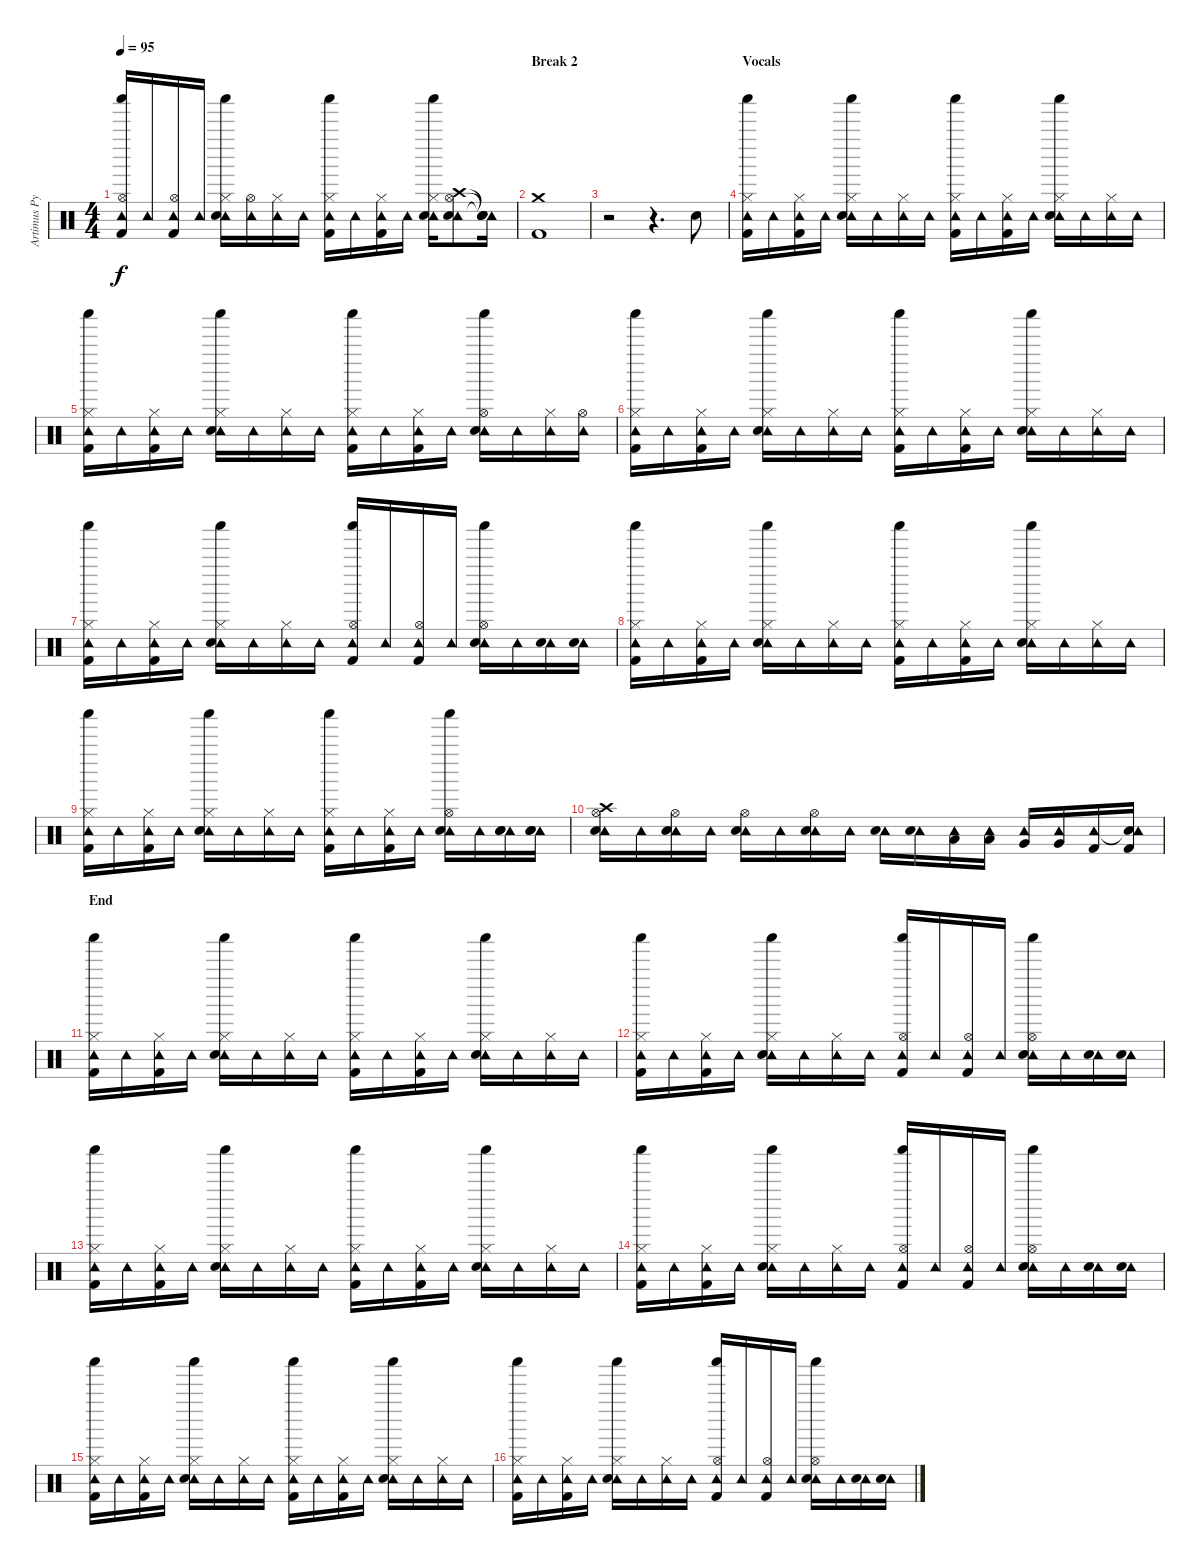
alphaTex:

\track ("Artimus Pyle" "Artimus Py") {instrument percussion}
\staff {score}
\articulation defaults
\ts (4 4)
\tempo 95
\clef neutral
\ks c
("Tambourine (hit)" "Shaker (hit)" "Hi-Hat (open)" "Kick (hit) 2").16{dy f} "Tambourine (hit)".16 ("Tambourine (hit)" "Hi-Hat (open)" "Kick (hit) 2").16 "Tambourine (hit)".16 ("Tambourine (hit)" "Shaker (hit)" "Hi-Hat (closed)" "Electric Snare (hit)").16 ("Tambourine (hit)" "Hi-Hat (open)").16 ("Tambourine (hit)" "Hi-Hat (closed)").16 "Tambourine (hit)".16 ("Tambourine (hit)" "Shaker (hit)" "Hi-Hat (closed)" "Kick (hit) 2").16 "Tambourine (hit)".16 ("Tambourine (hit)" "Hi-Hat (closed)" "Kick (hit) 2").16 "Tambourine (hit)".16 ("Tambourine (hit)" "Shaker (hit)" "Hi-Hat (closed)" "Electric Snare (hit)").16 ("Tambourine (hit)" "Crash high (hit)" "Hi-Hat (open)" "Electric Snare (hit)").8 ("Tambourine (hit)" "Snare (hit)"{t} "Snare (hit)"{t} "Snare (hit)"{t}).16 |
\section ("" "Break 2")
("Crash medium (hit)" "Kick (hit) 2").1 |
r.2 r.4{d} "Electric Snare (hit)".8 |
\section ("" "Vocals")
("Tambourine (hit)" "Shaker (hit)" "Hi-Hat (closed)" "Kick (hit) 2").16 "Tambourine (hit)".16 ("Tambourine (hit)" "Hi-Hat (closed)" "Kick (hit) 2").16 "Tambourine (hit)".16 ("Tambourine (hit)" "Shaker (hit)" "Hi-Hat (closed)" "Electric Snare (hit)").16 "Tambourine (hit)".16 ("Tambourine (hit)" "Hi-Hat (closed)").16 "Tambourine (hit)".16 ("Tambourine (hit)" "Shaker (hit)" "Hi-Hat (closed)" "Kick (hit) 2").16 "Tambourine (hit)".16 ("Tambourine (hit)" "Hi-Hat (closed)" "Kick (hit) 2").16 "Tambourine (hit)".16 ("Tambourine (hit)" "Shaker (hit)" "Hi-Hat (closed)" "Electric Snare (hit)").16 "Tambourine (hit)".16 ("Tambourine (hit)" "Hi-Hat (closed)").16 "Tambourine (hit)".16 |
("Tambourine (hit)" "Shaker (hit)" "Hi-Hat (closed)" "Kick (hit) 2").16 "Tambourine (hit)".16 ("Tambourine (hit)" "Hi-Hat (closed)" "Kick (hit) 2").16 "Tambourine (hit)".16 ("Tambourine (hit)" "Shaker (hit)" "Hi-Hat (closed)" "Electric Snare (hit)").16 "Tambourine (hit)".16 ("Tambourine (hit)" "Hi-Hat (closed)").16 "Tambourine (hit)".16 ("Tambourine (hit)" "Shaker (hit)" "Hi-Hat (closed)" "Kick (hit) 2").16 "Tambourine (hit)".16 ("Tambourine (hit)" "Hi-Hat (closed)" "Kick (hit) 2").16 "Tambourine (hit)".16 ("Tambourine (hit)" "Shaker (hit)" "Hi-Hat (open)" "Electric Snare (hit)").16 "Tambourine (hit)".16 ("Tambourine (hit)" "Hi-Hat (closed)").16 ("Tambourine (hit)" "Hi-Hat (open)").16 |
("Tambourine (hit)" "Shaker (hit)" "Hi-Hat (closed)" "Kick (hit) 2").16 "Tambourine (hit)".16 ("Tambourine (hit)" "Hi-Hat (closed)" "Kick (hit) 2").16 "Tambourine (hit)".16 ("Tambourine (hit)" "Shaker (hit)" "Hi-Hat (closed)" "Electric Snare (hit)").16 "Tambourine (hit)".16 ("Tambourine (hit)" "Hi-Hat (closed)").16 "Tambourine (hit)".16 ("Tambourine (hit)" "Shaker (hit)" "Hi-Hat (closed)" "Kick (hit) 2").16 "Tambourine (hit)".16 ("Tambourine (hit)" "Hi-Hat (closed)" "Kick (hit) 2").16 "Tambourine (hit)".16 ("Tambourine (hit)" "Shaker (hit)" "Hi-Hat (closed)" "Electric Snare (hit)").16 "Tambourine (hit)".16 ("Tambourine (hit)" "Hi-Hat (closed)").16 "Tambourine (hit)".16 |
("Tambourine (hit)" "Shaker (hit)" "Hi-Hat (closed)" "Kick (hit) 2").16 "Tambourine (hit)".16 ("Tambourine (hit)" "Hi-Hat (closed)" "Kick (hit) 2").16 "Tambourine (hit)".16 ("Tambourine (hit)" "Shaker (hit)" "Hi-Hat (closed)" "Electric Snare (hit)").16 "Tambourine (hit)".16 ("Tambourine (hit)" "Hi-Hat (closed)").16 "Tambourine (hit)".16 ("Tambourine (hit)" "Shaker (hit)" "Hi-Hat (open)" "Kick (hit) 2").16 "Tambourine (hit)".16 ("Tambourine (hit)" "Hi-Hat (open)" "Kick (hit) 2").16 "Tambourine (hit)".16 ("Tambourine (hit)" "Shaker (hit)" "Hi-Hat (open)" "Electric Snare (hit)").16 "Tambourine (hit)".16 ("Tambourine (hit)" "Electric Snare (hit)").16 ("Tambourine (hit)" "Electric Snare (hit)").16 |
("Tambourine (hit)" "Shaker (hit)" "Hi-Hat (closed)" "Kick (hit) 2").16 "Tambourine (hit)".16 ("Tambourine (hit)" "Hi-Hat (closed)" "Kick (hit) 2").16 "Tambourine (hit)".16 ("Tambourine (hit)" "Shaker (hit)" "Hi-Hat (closed)" "Electric Snare (hit)").16 "Tambourine (hit)".16 ("Tambourine (hit)" "Hi-Hat (closed)").16 "Tambourine (hit)".16 ("Tambourine (hit)" "Shaker (hit)" "Hi-Hat (closed)" "Kick (hit) 2").16 "Tambourine (hit)".16 ("Tambourine (hit)" "Hi-Hat (closed)" "Kick (hit) 2").16 "Tambourine (hit)".16 ("Tambourine (hit)" "Shaker (hit)" "Hi-Hat (closed)" "Electric Snare (hit)").16 "Tambourine (hit)".16 ("Tambourine (hit)" "Hi-Hat (closed)").16 "Tambourine (hit)".16 |
("Tambourine (hit)" "Shaker (hit)" "Hi-Hat (closed)" "Kick (hit) 2").16 "Tambourine (hit)".16 ("Tambourine (hit)" "Hi-Hat (closed)" "Kick (hit) 2").16 "Tambourine (hit)".16 ("Tambourine (hit)" "Shaker (hit)" "Hi-Hat (closed)" "Electric Snare (hit)").16 "Tambourine (hit)".16 ("Tambourine (hit)" "Hi-Hat (closed)").16 "Tambourine (hit)".16 ("Tambourine (hit)" "Shaker (hit)" "Hi-Hat (closed)" "Kick (hit) 2").16 "Tambourine (hit)".16 ("Tambourine (hit)" "Hi-Hat (closed)" "Kick (hit) 2").16 "Tambourine (hit)".16 ("Tambourine (hit)" "Shaker (hit)" "Hi-Hat (open)" "Electric Snare (hit)").16 "Tambourine (hit)".16 ("Tambourine (hit)" "Electric Snare (hit)" "Electric Snare (hit)").16 ("Tambourine (hit)" "Electric Snare (hit)" "Electric Snare (hit)").16 |
("Crash high (hit)" "Tambourine (hit)" "Hi-Hat (open)" "Electric Snare (hit)").16 "Tambourine (hit)".16 ("Tambourine (hit)" "Hi-Hat (open)" "Electric Snare (hit)").16 "Tambourine (hit)".16 ("Tambourine (hit)" "Hi-Hat (open)" "Electric Snare (hit)").16 "Tambourine (hit)".16 ("Tambourine (hit)" "Hi-Hat (open)" "Electric Snare (hit)").16 "Tambourine (hit)".16 ("Tambourine (hit)" "Electric Snare (hit)").16 ("Tambourine (hit)" "Electric Snare (hit)").16 ("Tambourine (hit)" "Low Tom (hit)").16 ("Tambourine (hit)" "Low Tom (hit)").16 ("Tambourine (hit)" "Very Low Tom (hit)").16 ("Tambourine (hit)" "Very Low Tom (hit)").16 ("Tambourine (hit)" "Kick (hit) 2").16 ("Snare (hit)"{t} "Tambourine (hit)" "Kick (hit) 2").16 |
\section ("" "End")
("Tambourine (hit)" "Shaker (hit)" "Hi-Hat (closed)" "Kick (hit) 2").16 "Tambourine (hit)".16 ("Tambourine (hit)" "Hi-Hat (closed)" "Kick (hit) 2").16 "Tambourine (hit)".16 ("Tambourine (hit)" "Shaker (hit)" "Hi-Hat (closed)" "Electric Snare (hit)").16 "Tambourine (hit)".16 ("Tambourine (hit)" "Hi-Hat (closed)").16 "Tambourine (hit)".16 ("Tambourine (hit)" "Shaker (hit)" "Hi-Hat (closed)" "Kick (hit) 2").16 "Tambourine (hit)".16 ("Tambourine (hit)" "Hi-Hat (closed)" "Kick (hit) 2").16 "Tambourine (hit)".16 ("Tambourine (hit)" "Shaker (hit)" "Hi-Hat (closed)" "Electric Snare (hit)").16 "Tambourine (hit)".16 ("Tambourine (hit)" "Hi-Hat (closed)").16 "Tambourine (hit)".16 |
("Tambourine (hit)" "Shaker (hit)" "Hi-Hat (closed)" "Kick (hit) 2").16 "Tambourine (hit)".16 ("Tambourine (hit)" "Hi-Hat (closed)" "Kick (hit) 2").16 "Tambourine (hit)".16 ("Tambourine (hit)" "Shaker (hit)" "Hi-Hat (closed)" "Electric Snare (hit)").16 "Tambourine (hit)".16 ("Tambourine (hit)" "Hi-Hat (closed)").16 "Tambourine (hit)".16 ("Tambourine (hit)" "Shaker (hit)" "Hi-Hat (open)" "Kick (hit) 2").16 "Tambourine (hit)".16 ("Tambourine (hit)" "Hi-Hat (open)" "Kick (hit) 2").16 "Tambourine (hit)".16 ("Tambourine (hit)" "Shaker (hit)" "Hi-Hat (open)" "Electric Snare (hit)").16 "Tambourine (hit)".16 ("Tambourine (hit)" "Electric Snare (hit)").16 ("Tambourine (hit)" "Electric Snare (hit)").16 |
("Tambourine (hit)" "Shaker (hit)" "Hi-Hat (closed)" "Kick (hit) 2").16 "Tambourine (hit)".16 ("Tambourine (hit)" "Hi-Hat (closed)" "Kick (hit) 2").16 "Tambourine (hit)".16 ("Tambourine (hit)" "Shaker (hit)" "Hi-Hat (closed)" "Electric Snare (hit)").16 "Tambourine (hit)".16 ("Tambourine (hit)" "Hi-Hat (closed)").16 "Tambourine (hit)".16 ("Tambourine (hit)" "Shaker (hit)" "Hi-Hat (closed)" "Kick (hit) 2").16 "Tambourine (hit)".16 ("Tambourine (hit)" "Hi-Hat (closed)" "Kick (hit) 2").16 "Tambourine (hit)".16 ("Tambourine (hit)" "Shaker (hit)" "Hi-Hat (closed)" "Electric Snare (hit)").16 "Tambourine (hit)".16 ("Tambourine (hit)" "Hi-Hat (closed)").16 "Tambourine (hit)".16 |
("Tambourine (hit)" "Shaker (hit)" "Hi-Hat (closed)" "Kick (hit) 2").16 "Tambourine (hit)".16 ("Tambourine (hit)" "Hi-Hat (closed)" "Kick (hit) 2").16 "Tambourine (hit)".16 ("Tambourine (hit)" "Shaker (hit)" "Hi-Hat (closed)" "Electric Snare (hit)").16 "Tambourine (hit)".16 ("Tambourine (hit)" "Hi-Hat (closed)").16 "Tambourine (hit)".16 ("Tambourine (hit)" "Shaker (hit)" "Hi-Hat (open)" "Kick (hit) 2").16 "Tambourine (hit)".16 ("Tambourine (hit)" "Hi-Hat (open)" "Kick (hit) 2").16 "Tambourine (hit)".16 ("Tambourine (hit)" "Shaker (hit)" "Hi-Hat (open)" "Electric Snare (hit)").16 "Tambourine (hit)".16 ("Tambourine (hit)" "Electric Snare (hit)").16 ("Tambourine (hit)" "Electric Snare (hit)").16 |
("Tambourine (hit)" "Shaker (hit)" "Hi-Hat (closed)" "Kick (hit) 2").16 "Tambourine (hit)".16 ("Tambourine (hit)" "Hi-Hat (closed)" "Kick (hit) 2").16 "Tambourine (hit)".16 ("Tambourine (hit)" "Shaker (hit)" "Hi-Hat (closed)" "Electric Snare (hit)").16 "Tambourine (hit)".16 ("Tambourine (hit)" "Hi-Hat (closed)").16 "Tambourine (hit)".16 ("Tambourine (hit)" "Shaker (hit)" "Hi-Hat (closed)" "Kick (hit) 2").16 "Tambourine (hit)".16 ("Tambourine (hit)" "Hi-Hat (closed)" "Kick (hit) 2").16 "Tambourine (hit)".16 ("Tambourine (hit)" "Shaker (hit)" "Hi-Hat (closed)" "Electric Snare (hit)").16 "Tambourine (hit)".16 ("Tambourine (hit)" "Hi-Hat (closed)").16 "Tambourine (hit)".16 |
("Tambourine (hit)" "Shaker (hit)" "Hi-Hat (closed)" "Kick (hit) 2").16 "Tambourine (hit)".16 ("Tambourine (hit)" "Hi-Hat (closed)" "Kick (hit) 2").16 "Tambourine (hit)".16 ("Tambourine (hit)" "Shaker (hit)" "Hi-Hat (closed)" "Electric Snare (hit)").16 "Tambourine (hit)".16 ("Tambourine (hit)" "Hi-Hat (closed)").16 "Tambourine (hit)".16 ("Tambourine (hit)" "Shaker (hit)" "Hi-Hat (open)" "Kick (hit) 2").16 "Tambourine (hit)".16 ("Tambourine (hit)" "Hi-Hat (open)" "Kick (hit) 2").16 "Tambourine (hit)".16 ("Tambourine (hit)" "Shaker (hit)" "Hi-Hat (open)" "Electric Snare (hit)").16 "Tambourine (hit)".16 ("Tambourine (hit)" "Electric Snare (hit)").16 ("Tambourine (hit)" "Electric Snare (hit)").16
